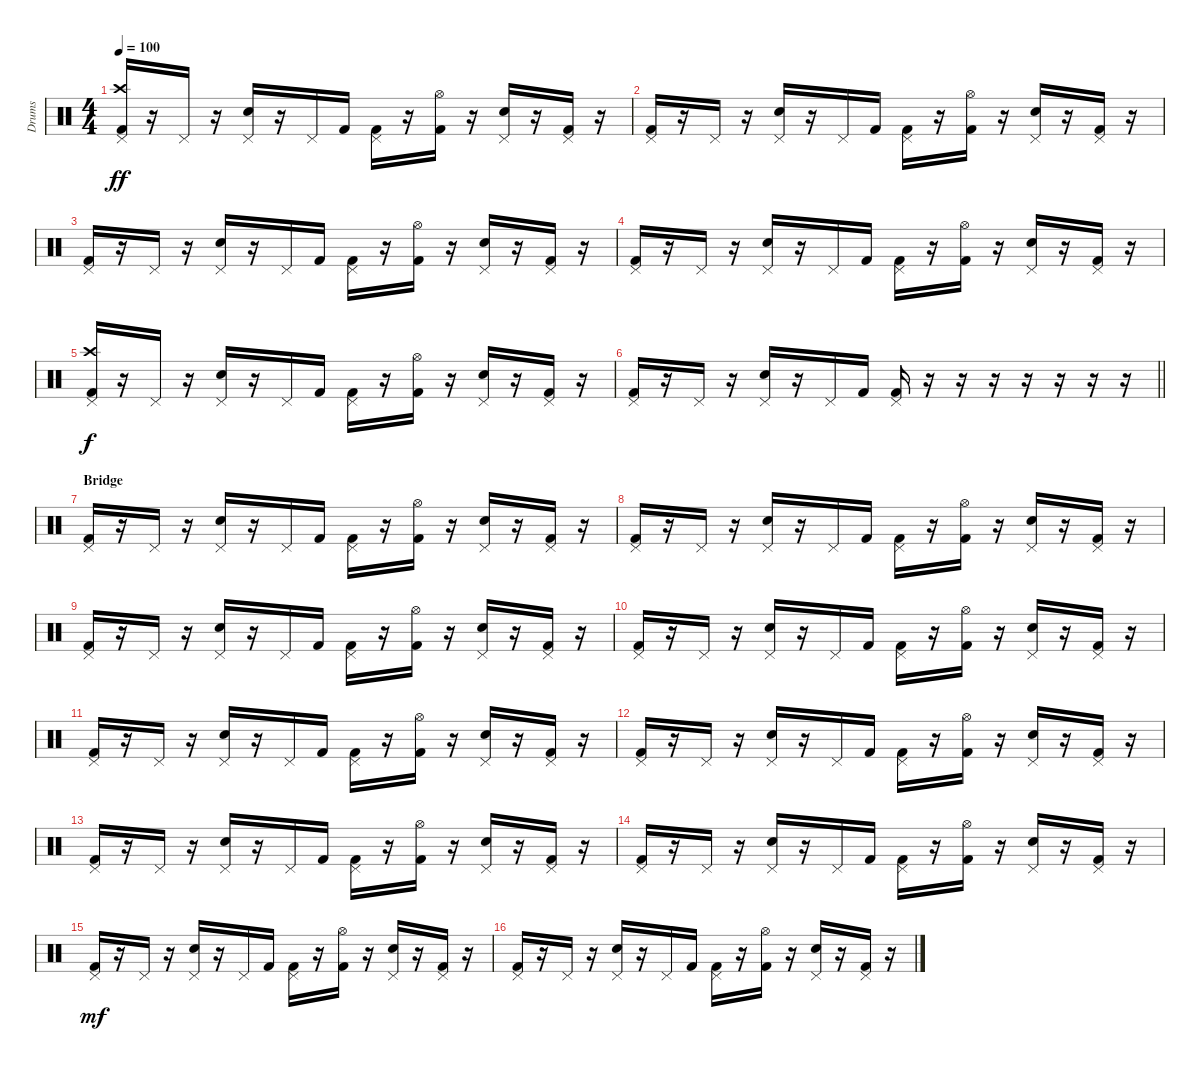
\track ("Drums" "Drums") {instrument percussion}
\staff {score}
\articulation defaults
\ts (4 4)
\tempo 100
\clef neutral
\ks c
("Pedal Hi-Hat (hit)" "Crash high (hit)" "Kick (hit) 2").16{dy ff} r.16 "Pedal Hi-Hat (hit)".16 r.16 ("Pedal Hi-Hat (hit)" "Electric Snare (hit)").16 r.16 "Pedal Hi-Hat (hit)".16 "Kick (hit) 2".16 ("Pedal Hi-Hat (hit)" "Kick (hit) 2").16 r.16 ("Hi-Hat (open)" "Kick (hit) 2").16 r.16 ("Pedal Hi-Hat (hit)" "Electric Snare (hit)").16 r.16 ("Pedal Hi-Hat (hit)" "Kick (hit) 2").16 r.16 |
("Pedal Hi-Hat (hit)" "Kick (hit) 2").16 r.16 "Pedal Hi-Hat (hit)".16 r.16 ("Pedal Hi-Hat (hit)" "Electric Snare (hit)").16 r.16 "Pedal Hi-Hat (hit)".16 "Kick (hit) 2".16 ("Pedal Hi-Hat (hit)" "Kick (hit) 2").16 r.16 ("Hi-Hat (open)" "Kick (hit) 2").16 r.16 ("Pedal Hi-Hat (hit)" "Electric Snare (hit)").16 r.16 ("Pedal Hi-Hat (hit)" "Kick (hit) 2").16 r.16 |
("Pedal Hi-Hat (hit)" "Kick (hit) 2").16 r.16 "Pedal Hi-Hat (hit)".16 r.16 ("Pedal Hi-Hat (hit)" "Electric Snare (hit)").16 r.16 "Pedal Hi-Hat (hit)".16 "Kick (hit) 2".16 ("Pedal Hi-Hat (hit)" "Kick (hit) 2").16 r.16 ("Hi-Hat (open)" "Kick (hit) 2").16 r.16 ("Pedal Hi-Hat (hit)" "Electric Snare (hit)").16 r.16 ("Pedal Hi-Hat (hit)" "Kick (hit) 2").16 r.16 |
("Pedal Hi-Hat (hit)" "Kick (hit) 2").16 r.16 "Pedal Hi-Hat (hit)".16 r.16 ("Pedal Hi-Hat (hit)" "Electric Snare (hit)").16 r.16 "Pedal Hi-Hat (hit)".16 "Kick (hit) 2".16 ("Pedal Hi-Hat (hit)" "Kick (hit) 2").16 r.16 ("Hi-Hat (open)" "Kick (hit) 2").16 r.16 ("Pedal Hi-Hat (hit)" "Electric Snare (hit)").16 r.16 ("Pedal Hi-Hat (hit)" "Kick (hit) 2").16 r.16 |
("Pedal Hi-Hat (hit)" "Crash high (hit)" "Kick (hit) 2").16{dy f} r.16 "Pedal Hi-Hat (hit)".16 r.16 ("Pedal Hi-Hat (hit)" "Electric Snare (hit)").16 r.16 "Pedal Hi-Hat (hit)".16 "Kick (hit) 2".16 ("Pedal Hi-Hat (hit)" "Kick (hit) 2").16 r.16 ("Hi-Hat (open)" "Kick (hit) 2").16 r.16 ("Pedal Hi-Hat (hit)" "Electric Snare (hit)").16 r.16 ("Pedal Hi-Hat (hit)" "Kick (hit) 2").16 r.16 |
\barLineRight lightlight
("Pedal Hi-Hat (hit)" "Kick (hit) 2").16 r.16 "Pedal Hi-Hat (hit)".16 r.16 ("Pedal Hi-Hat (hit)" "Electric Snare (hit)").16 r.16 "Pedal Hi-Hat (hit)".16 "Kick (hit) 2".16 ("Pedal Hi-Hat (hit)" "Kick (hit) 2").16 r.16 r.16 r.16 r.16 r.16 r.16 r.16 |
\section ("" "Bridge")
("Pedal Hi-Hat (hit)" "Kick (hit) 2").16 r.16 "Pedal Hi-Hat (hit)".16 r.16 ("Pedal Hi-Hat (hit)" "Electric Snare (hit)").16 r.16 "Pedal Hi-Hat (hit)".16 "Kick (hit) 2".16 ("Pedal Hi-Hat (hit)" "Kick (hit) 2").16 r.16 ("Hi-Hat (open)" "Kick (hit) 2").16 r.16 ("Pedal Hi-Hat (hit)" "Electric Snare (hit)").16 r.16 ("Pedal Hi-Hat (hit)" "Kick (hit) 2").16 r.16 |
("Pedal Hi-Hat (hit)" "Kick (hit) 2").16 r.16 "Pedal Hi-Hat (hit)".16 r.16 ("Pedal Hi-Hat (hit)" "Electric Snare (hit)").16 r.16 "Pedal Hi-Hat (hit)".16 "Kick (hit) 2".16 ("Pedal Hi-Hat (hit)" "Kick (hit) 2").16 r.16 ("Hi-Hat (open)" "Kick (hit) 2").16 r.16 ("Pedal Hi-Hat (hit)" "Electric Snare (hit)").16 r.16 ("Pedal Hi-Hat (hit)" "Kick (hit) 2").16 r.16 |
("Pedal Hi-Hat (hit)" "Kick (hit) 2").16 r.16 "Pedal Hi-Hat (hit)".16 r.16 ("Pedal Hi-Hat (hit)" "Electric Snare (hit)").16 r.16 "Pedal Hi-Hat (hit)".16 "Kick (hit) 2".16 ("Pedal Hi-Hat (hit)" "Kick (hit) 2").16 r.16 ("Hi-Hat (open)" "Kick (hit) 2").16 r.16 ("Pedal Hi-Hat (hit)" "Electric Snare (hit)").16 r.16 ("Pedal Hi-Hat (hit)" "Kick (hit) 2").16 r.16 |
("Pedal Hi-Hat (hit)" "Kick (hit) 2").16 r.16 "Pedal Hi-Hat (hit)".16 r.16 ("Pedal Hi-Hat (hit)" "Electric Snare (hit)").16 r.16 "Pedal Hi-Hat (hit)".16 "Kick (hit) 2".16 ("Pedal Hi-Hat (hit)" "Kick (hit) 2").16 r.16 ("Hi-Hat (open)" "Kick (hit) 2").16 r.16 ("Pedal Hi-Hat (hit)" "Electric Snare (hit)").16 r.16 ("Pedal Hi-Hat (hit)" "Kick (hit) 2").16 r.16 |
("Pedal Hi-Hat (hit)" "Kick (hit) 2").16 r.16 "Pedal Hi-Hat (hit)".16 r.16 ("Pedal Hi-Hat (hit)" "Electric Snare (hit)").16 r.16 "Pedal Hi-Hat (hit)".16 "Kick (hit) 2".16 ("Pedal Hi-Hat (hit)" "Kick (hit) 2").16 r.16 ("Hi-Hat (open)" "Kick (hit) 2").16 r.16 ("Pedal Hi-Hat (hit)" "Electric Snare (hit)").16 r.16 ("Pedal Hi-Hat (hit)" "Kick (hit) 2").16 r.16 |
("Pedal Hi-Hat (hit)" "Kick (hit) 2").16 r.16 "Pedal Hi-Hat (hit)".16 r.16 ("Pedal Hi-Hat (hit)" "Electric Snare (hit)").16 r.16 "Pedal Hi-Hat (hit)".16 "Kick (hit) 2".16 ("Pedal Hi-Hat (hit)" "Kick (hit) 2").16 r.16 ("Hi-Hat (open)" "Kick (hit) 2").16 r.16 ("Pedal Hi-Hat (hit)" "Electric Snare (hit)").16 r.16 ("Pedal Hi-Hat (hit)" "Kick (hit) 2").16 r.16 |
("Pedal Hi-Hat (hit)" "Kick (hit) 2").16 r.16 "Pedal Hi-Hat (hit)".16 r.16 ("Pedal Hi-Hat (hit)" "Electric Snare (hit)").16 r.16 "Pedal Hi-Hat (hit)".16 "Kick (hit) 2".16 ("Pedal Hi-Hat (hit)" "Kick (hit) 2").16 r.16 ("Hi-Hat (open)" "Kick (hit) 2").16 r.16 ("Pedal Hi-Hat (hit)" "Electric Snare (hit)").16 r.16 ("Pedal Hi-Hat (hit)" "Kick (hit) 2").16 r.16 |
("Pedal Hi-Hat (hit)" "Kick (hit) 2").16 r.16 "Pedal Hi-Hat (hit)".16 r.16 ("Pedal Hi-Hat (hit)" "Electric Snare (hit)").16 r.16 "Pedal Hi-Hat (hit)".16 "Kick (hit) 2".16 ("Pedal Hi-Hat (hit)" "Kick (hit) 2").16 r.16 ("Hi-Hat (open)" "Kick (hit) 2").16 r.16 ("Pedal Hi-Hat (hit)" "Electric Snare (hit)").16 r.16 ("Pedal Hi-Hat (hit)" "Kick (hit) 2").16 r.16 |
("Pedal Hi-Hat (hit)" "Kick (hit) 2").16{dy mf} r.16 "Pedal Hi-Hat (hit)".16 r.16 ("Pedal Hi-Hat (hit)" "Electric Snare (hit)").16 r.16 "Pedal Hi-Hat (hit)".16 "Kick (hit) 2".16 ("Pedal Hi-Hat (hit)" "Kick (hit) 2").16 r.16 ("Hi-Hat (open)" "Kick (hit) 2").16 r.16 ("Pedal Hi-Hat (hit)" "Electric Snare (hit)").16 r.16 ("Pedal Hi-Hat (hit)" "Kick (hit) 2").16 r.16 |
("Pedal Hi-Hat (hit)" "Kick (hit) 2").16 r.16 "Pedal Hi-Hat (hit)".16 r.16 ("Pedal Hi-Hat (hit)" "Electric Snare (hit)").16 r.16 "Pedal Hi-Hat (hit)".16 "Kick (hit) 2".16 ("Pedal Hi-Hat (hit)" "Kick (hit) 2").16 r.16 ("Hi-Hat (open)" "Kick (hit) 2").16 r.16 ("Pedal Hi-Hat (hit)" "Electric Snare (hit)").16 r.16 ("Pedal Hi-Hat (hit)" "Kick (hit) 2").16 r.16
